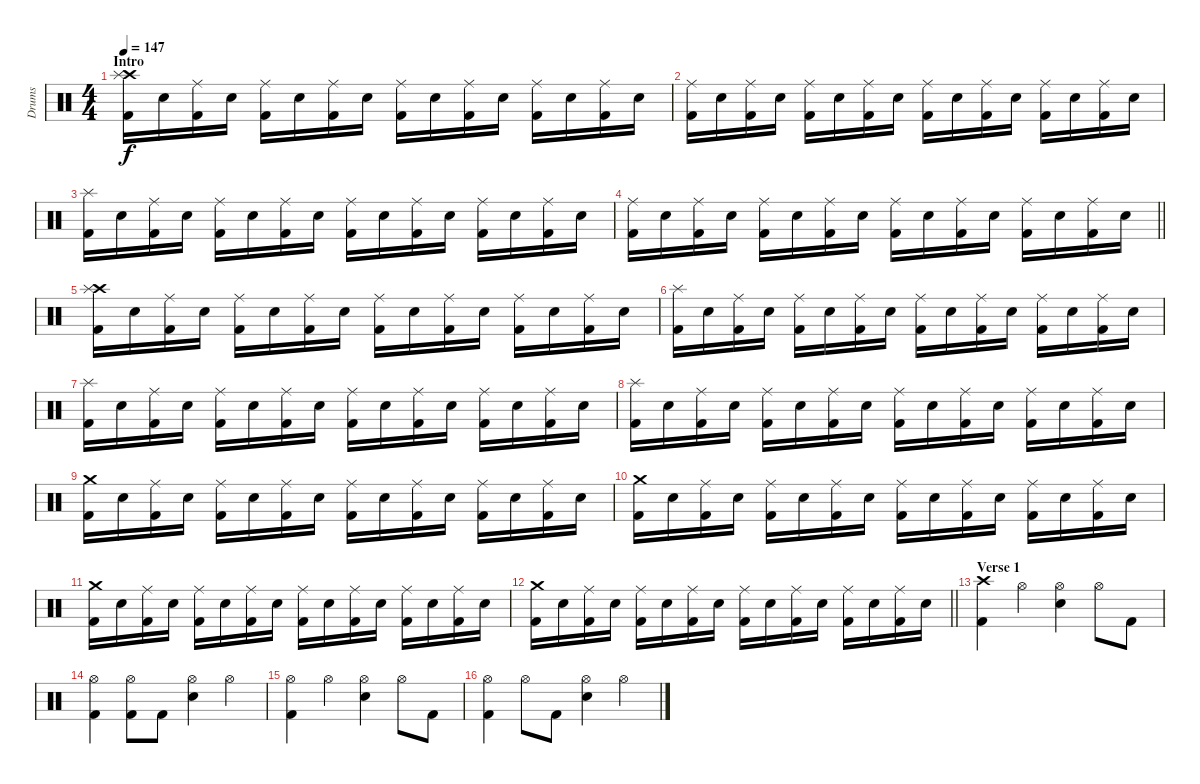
\track ("Drums" "Drums") {instrument percussion}
\staff {score}
\articulation defaults
\ts (4 4)
\section ("" "Intro")
\tempo 147
\clef neutral
\ks c
("Crash high (hit)" "Splash (hit)" "Kick (hit) 2").16{dy f} "Electric Snare (hit)".16 ("Ride (middle)" "Kick (hit) 2").16 "Electric Snare (hit)".16 ("Ride (middle)" "Kick (hit) 2").16 "Electric Snare (hit)".16 ("Ride (middle)" "Kick (hit) 2").16 "Electric Snare (hit)".16 ("Ride (middle)" "Kick (hit) 2").16 "Electric Snare (hit)".16 ("Ride (middle)" "Kick (hit) 2").16 "Electric Snare (hit)".16 ("Ride (middle)" "Kick (hit) 2").16 "Electric Snare (hit)".16 ("Ride (middle)" "Kick (hit) 2").16 "Electric Snare (hit)".16 |
("Ride (middle)" "Kick (hit) 2").16 "Electric Snare (hit)".16 ("Ride (middle)" "Kick (hit) 2").16 "Electric Snare (hit)".16 ("Ride (middle)" "Kick (hit) 2").16 "Electric Snare (hit)".16 ("Ride (middle)" "Kick (hit) 2").16 "Electric Snare (hit)".16 ("Ride (middle)" "Kick (hit) 2").16 "Electric Snare (hit)".16 ("Ride (middle)" "Kick (hit) 2").16 "Electric Snare (hit)".16 ("Ride (middle)" "Kick (hit) 2").16 "Electric Snare (hit)".16 ("Ride (middle)" "Kick (hit) 2").16 "Electric Snare (hit)".16 |
("Splash (hit)" "Kick (hit) 2").16 "Electric Snare (hit)".16 ("Ride (middle)" "Kick (hit) 2").16 "Electric Snare (hit)".16 ("Ride (middle)" "Kick (hit) 2").16 "Electric Snare (hit)".16 ("Ride (middle)" "Kick (hit) 2").16 "Electric Snare (hit)".16 ("Ride (middle)" "Kick (hit) 2").16 "Electric Snare (hit)".16 ("Ride (middle)" "Kick (hit) 2").16 "Electric Snare (hit)".16 ("Ride (middle)" "Kick (hit) 2").16 "Electric Snare (hit)".16 ("Ride (middle)" "Kick (hit) 2").16 "Electric Snare (hit)".16 |
\barLineRight lightlight
("Ride (middle)" "Kick (hit) 2").16 "Electric Snare (hit)".16 ("Ride (middle)" "Kick (hit) 2").16 "Electric Snare (hit)".16 ("Ride (middle)" "Kick (hit) 2").16 "Electric Snare (hit)".16 ("Ride (middle)" "Kick (hit) 2").16 "Electric Snare (hit)".16 ("Ride (middle)" "Kick (hit) 2").16 "Electric Snare (hit)".16 ("Ride (middle)" "Kick (hit) 2").16 "Electric Snare (hit)".16 ("Ride (middle)" "Kick (hit) 2").16 "Electric Snare (hit)".16 ("Ride (middle)" "Kick (hit) 2").16 "Electric Snare (hit)".16 |
\section ("" "")
("Crash high (hit)" "Splash (hit)" "Kick (hit) 2").16 "Electric Snare (hit)".16 ("Ride (middle)" "Kick (hit) 2").16 "Electric Snare (hit)".16 ("Ride (middle)" "Kick (hit) 2").16 "Electric Snare (hit)".16 ("Ride (middle)" "Kick (hit) 2").16 "Electric Snare (hit)".16 ("Ride (middle)" "Kick (hit) 2").16 "Electric Snare (hit)".16 ("Ride (middle)" "Kick (hit) 2").16 "Electric Snare (hit)".16 ("Ride (middle)" "Kick (hit) 2").16 "Electric Snare (hit)".16 ("Ride (middle)" "Kick (hit) 2").16 "Electric Snare (hit)".16 |
("Splash (hit)" "Kick (hit) 2").16 "Electric Snare (hit)".16 ("Ride (middle)" "Kick (hit) 2").16 "Electric Snare (hit)".16 ("Ride (middle)" "Kick (hit) 2").16 "Electric Snare (hit)".16 ("Ride (middle)" "Kick (hit) 2").16 "Electric Snare (hit)".16 ("Ride (middle)" "Kick (hit) 2").16 "Electric Snare (hit)".16 ("Ride (middle)" "Kick (hit) 2").16 "Electric Snare (hit)".16 ("Ride (middle)" "Kick (hit) 2").16 "Electric Snare (hit)".16 ("Ride (middle)" "Kick (hit) 2").16 "Electric Snare (hit)".16 |
("Splash (hit)" "Kick (hit) 2").16 "Electric Snare (hit)".16 ("Ride (middle)" "Kick (hit) 2").16 "Electric Snare (hit)".16 ("Ride (middle)" "Kick (hit) 2").16 "Electric Snare (hit)".16 ("Ride (middle)" "Kick (hit) 2").16 "Electric Snare (hit)".16 ("Ride (middle)" "Kick (hit) 2").16 "Electric Snare (hit)".16 ("Ride (middle)" "Kick (hit) 2").16 "Electric Snare (hit)".16 ("Ride (middle)" "Kick (hit) 2").16 "Electric Snare (hit)".16 ("Ride (middle)" "Kick (hit) 2").16 "Electric Snare (hit)".16 |
("Splash (hit)" "Kick (hit) 2").16 "Electric Snare (hit)".16 ("Ride (middle)" "Kick (hit) 2").16 "Electric Snare (hit)".16 ("Ride (middle)" "Kick (hit) 2").16 "Electric Snare (hit)".16 ("Ride (middle)" "Kick (hit) 2").16 "Electric Snare (hit)".16 ("Ride (middle)" "Kick (hit) 2").16 "Electric Snare (hit)".16 ("Ride (middle)" "Kick (hit) 2").16 "Electric Snare (hit)".16 ("Ride (middle)" "Kick (hit) 2").16 "Electric Snare (hit)".16 ("Ride (middle)" "Kick (hit) 2").16 "Electric Snare (hit)".16 |
("Crash medium (hit)" "Kick (hit) 2").16 "Electric Snare (hit)".16 ("Ride (middle)" "Kick (hit) 2").16 "Electric Snare (hit)".16 ("Ride (middle)" "Kick (hit) 2").16 "Electric Snare (hit)".16 ("Ride (middle)" "Kick (hit) 2").16 "Electric Snare (hit)".16 ("Ride (middle)" "Kick (hit) 2").16 "Electric Snare (hit)".16 ("Ride (middle)" "Kick (hit) 2").16 "Electric Snare (hit)".16 ("Ride (middle)" "Kick (hit) 2").16 "Electric Snare (hit)".16 ("Ride (middle)" "Kick (hit) 2").16 "Electric Snare (hit)".16 |
("Crash medium (hit)" "Kick (hit) 2").16 "Electric Snare (hit)".16 ("Ride (middle)" "Kick (hit) 2").16 "Electric Snare (hit)".16 ("Ride (middle)" "Kick (hit) 2").16 "Electric Snare (hit)".16 ("Ride (middle)" "Kick (hit) 2").16 "Electric Snare (hit)".16 ("Ride (middle)" "Kick (hit) 2").16 "Electric Snare (hit)".16 ("Ride (middle)" "Kick (hit) 2").16 "Electric Snare (hit)".16 ("Ride (middle)" "Kick (hit) 2").16 "Electric Snare (hit)".16 ("Ride (middle)" "Kick (hit) 2").16 "Electric Snare (hit)".16 |
("Crash medium (hit)" "Kick (hit) 2").16 "Electric Snare (hit)".16 ("Ride (middle)" "Kick (hit) 2").16 "Electric Snare (hit)".16 ("Ride (middle)" "Kick (hit) 2").16 "Electric Snare (hit)".16 ("Ride (middle)" "Kick (hit) 2").16 "Electric Snare (hit)".16 ("Ride (middle)" "Kick (hit) 2").16 "Electric Snare (hit)".16 ("Ride (middle)" "Kick (hit) 2").16 "Electric Snare (hit)".16 ("Ride (middle)" "Kick (hit) 2").16 "Electric Snare (hit)".16 ("Ride (middle)" "Kick (hit) 2").16 "Electric Snare (hit)".16 |
\barLineRight lightlight
("Crash medium (hit)" "Kick (hit) 2").16 "Electric Snare (hit)".16 ("Ride (middle)" "Kick (hit) 2").16 "Electric Snare (hit)".16 ("Ride (middle)" "Kick (hit) 2").16 "Electric Snare (hit)".16 ("Ride (middle)" "Kick (hit) 2").16 "Electric Snare (hit)".16 ("Ride (middle)" "Kick (hit) 2").16 "Electric Snare (hit)".16 ("Ride (middle)" "Kick (hit) 2").16 "Electric Snare (hit)".16 ("Ride (middle)" "Kick (hit) 2").16 "Electric Snare (hit)".16 ("Ride (middle)" "Kick (hit) 2").16 "Electric Snare (hit)".16 |
\section ("" "Verse 1")
("Crash high (hit)" "Kick (hit) 2").4 "Hi-Hat (open)".4 ("Hi-Hat (open)" "Electric Snare (hit)").4 "Hi-Hat (open)".8 "Kick (hit) 2".8 |
("Hi-Hat (open)" "Kick (hit) 2").4 ("Hi-Hat (open)" "Kick (hit) 2").8 "Kick (hit) 2".8 ("Hi-Hat (open)" "Electric Snare (hit)").4 "Hi-Hat (open)".4 |
("Hi-Hat (open)" "Kick (hit) 2").4 "Hi-Hat (open)".4 ("Hi-Hat (open)" "Electric Snare (hit)").4 "Hi-Hat (open)".8 "Kick (hit) 2".8 |
("Hi-Hat (open)" "Kick (hit) 2").4 "Hi-Hat (open)".8 "Kick (hit) 2".8 ("Hi-Hat (open)" "Electric Snare (hit)").4 "Hi-Hat (open)".4
